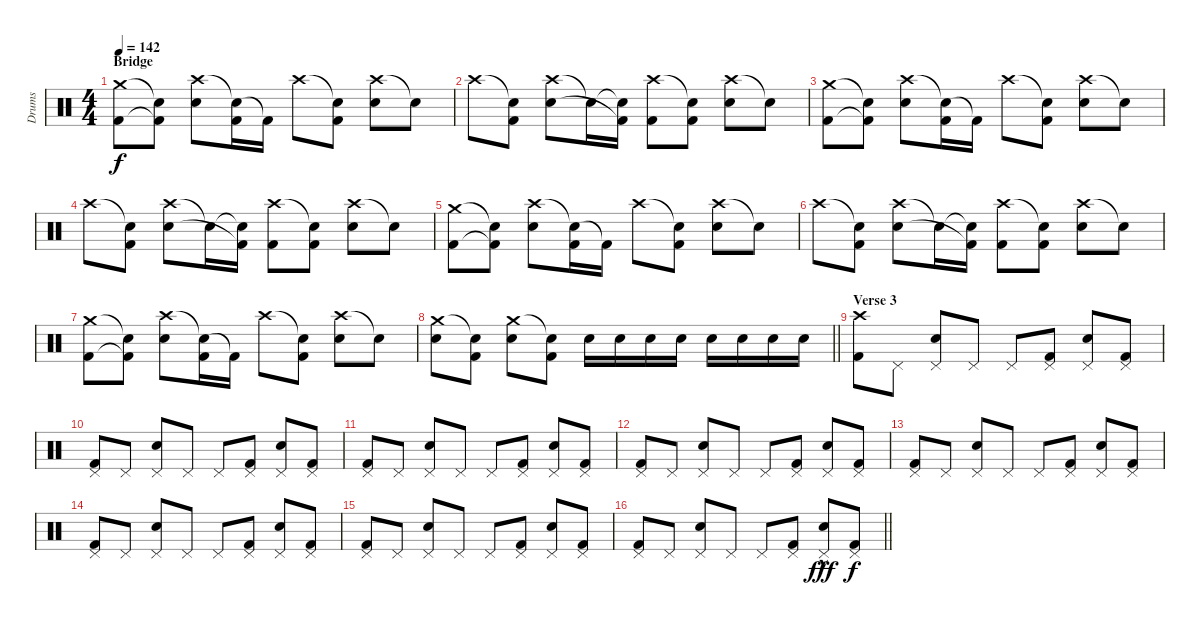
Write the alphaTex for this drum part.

\track ("Drums" "Drums") {instrument percussion}
\staff {score}
\articulation defaults
\ts (4 4)
\section ("" "Bridge")
\tempo 142
\clef neutral
\ks c
("Crash medium (hit)" "Kick (hit) 2").8{dy f} ("Snare (hit)"{t} "Kick (hit) 2"{t}).8 ("Crash high (hit)" "Electric Snare (hit)").8 ("Snare (hit)"{t} "Kick (hit) 2").16 "Kick (hit) 2"{t}.16 "Crash high (hit)".8 ("Snare (hit)"{t} "Kick (hit) 2").8 ("Crash high (hit)" "Electric Snare (hit)").8 "Snare (hit)"{t}.8 |
"Crash high (hit)".8 ("Snare (hit)"{t} "Kick (hit) 2").8 ("Crash high (hit)" "Electric Snare (hit)").8 "Snare (hit)"{t}.16 ("Snare (hit)"{t} "Kick (hit) 2"{t}).16 ("Crash high (hit)" "Kick (hit) 2").8 ("Snare (hit)"{t} "Kick (hit) 2").8 ("Crash high (hit)" "Electric Snare (hit)").8 "Snare (hit)"{t}.8 |
("Crash medium (hit)" "Kick (hit) 2").8 ("Snare (hit)"{t} "Kick (hit) 2"{t}).8 ("Crash high (hit)" "Electric Snare (hit)").8 ("Snare (hit)"{t} "Kick (hit) 2").16 "Kick (hit) 2"{t}.16 "Crash high (hit)".8 ("Snare (hit)"{t} "Kick (hit) 2").8 ("Crash high (hit)" "Electric Snare (hit)").8 "Snare (hit)"{t}.8 |
"Crash high (hit)".8 ("Snare (hit)"{t} "Kick (hit) 2").8 ("Crash high (hit)" "Electric Snare (hit)").8 "Snare (hit)"{t}.16 ("Snare (hit)"{t} "Kick (hit) 2"{t}).16 ("Crash high (hit)" "Kick (hit) 2").8 ("Snare (hit)"{t} "Kick (hit) 2").8 ("Crash high (hit)" "Electric Snare (hit)").8 "Snare (hit)"{t}.8 |
("Crash medium (hit)" "Kick (hit) 2").8 ("Snare (hit)"{t} "Kick (hit) 2"{t}).8 ("Crash high (hit)" "Electric Snare (hit)").8 ("Snare (hit)"{t} "Kick (hit) 2").16 "Kick (hit) 2"{t}.16 "Crash high (hit)".8 ("Snare (hit)"{t} "Kick (hit) 2").8 ("Crash high (hit)" "Electric Snare (hit)").8 "Snare (hit)"{t}.8 |
"Crash high (hit)".8 ("Snare (hit)"{t} "Kick (hit) 2").8 ("Crash high (hit)" "Electric Snare (hit)").8 "Snare (hit)"{t}.16 ("Snare (hit)"{t} "Kick (hit) 2"{t}).16 ("Crash high (hit)" "Kick (hit) 2").8 ("Snare (hit)"{t} "Kick (hit) 2").8 ("Crash high (hit)" "Electric Snare (hit)").8 "Snare (hit)"{t}.8 |
("Crash medium (hit)" "Kick (hit) 2").8 ("Snare (hit)"{t} "Kick (hit) 2"{t}).8 ("Crash high (hit)" "Electric Snare (hit)").8 ("Snare (hit)"{t} "Kick (hit) 2").16 "Kick (hit) 2"{t}.16 "Crash high (hit)".8 ("Snare (hit)"{t} "Kick (hit) 2").8 ("Crash high (hit)" "Electric Snare (hit)").8 "Snare (hit)"{t}.8 |
\barLineRight lightlight
("Crash medium (hit)" "Electric Snare (hit)").8 ("Snare (hit)"{t} "Kick (hit) 2").8 ("Crash medium (hit)" "Electric Snare (hit)").8 ("Snare (hit)"{t} "Kick (hit) 2").8 "Electric Snare (hit)".16 "Electric Snare (hit)".16 "Electric Snare (hit)".16 "Electric Snare (hit)".16 "Electric Snare (hit)".16 "Electric Snare (hit)".16 "Electric Snare (hit)".16 "Electric Snare (hit)".16 |
\section ("" "Verse 3")
("Crash high (hit)" "Kick (hit) 2").8 "Pedal Hi-Hat (hit)".8 ("Pedal Hi-Hat (hit)" "Snare (hit) 2").8 "Pedal Hi-Hat (hit)".8 "Pedal Hi-Hat (hit)".8 ("Pedal Hi-Hat (hit)" "Kick (hit) 2").8 ("Pedal Hi-Hat (hit)" "Snare (hit) 2").8 ("Pedal Hi-Hat (hit)" "Kick (hit) 2").8 |
("Pedal Hi-Hat (hit)" "Kick (hit) 2").8 "Pedal Hi-Hat (hit)".8 ("Pedal Hi-Hat (hit)" "Snare (hit) 2").8 "Pedal Hi-Hat (hit)".8 "Pedal Hi-Hat (hit)".8 ("Pedal Hi-Hat (hit)" "Kick (hit) 2").8 ("Pedal Hi-Hat (hit)" "Snare (hit) 2").8 ("Pedal Hi-Hat (hit)" "Kick (hit) 2").8 |
("Pedal Hi-Hat (hit)" "Kick (hit) 2").8 "Pedal Hi-Hat (hit)".8 ("Pedal Hi-Hat (hit)" "Snare (hit) 2").8 "Pedal Hi-Hat (hit)".8 "Pedal Hi-Hat (hit)".8 ("Pedal Hi-Hat (hit)" "Kick (hit) 2").8 ("Pedal Hi-Hat (hit)" "Snare (hit) 2").8 ("Pedal Hi-Hat (hit)" "Kick (hit) 2").8 |
("Pedal Hi-Hat (hit)" "Kick (hit) 2").8 "Pedal Hi-Hat (hit)".8 ("Pedal Hi-Hat (hit)" "Snare (hit) 2").8 "Pedal Hi-Hat (hit)".8 "Pedal Hi-Hat (hit)".8 ("Pedal Hi-Hat (hit)" "Kick (hit) 2").8 ("Pedal Hi-Hat (hit)" "Snare (hit) 2").8 ("Pedal Hi-Hat (hit)" "Kick (hit) 2").8 |
("Pedal Hi-Hat (hit)" "Kick (hit) 2").8 "Pedal Hi-Hat (hit)".8 ("Pedal Hi-Hat (hit)" "Snare (hit) 2").8 "Pedal Hi-Hat (hit)".8 "Pedal Hi-Hat (hit)".8 ("Pedal Hi-Hat (hit)" "Kick (hit) 2").8 ("Pedal Hi-Hat (hit)" "Snare (hit) 2").8 ("Pedal Hi-Hat (hit)" "Kick (hit) 2").8 |
("Pedal Hi-Hat (hit)" "Kick (hit) 2").8 "Pedal Hi-Hat (hit)".8 ("Pedal Hi-Hat (hit)" "Snare (hit) 2").8 "Pedal Hi-Hat (hit)".8 "Pedal Hi-Hat (hit)".8 ("Pedal Hi-Hat (hit)" "Kick (hit) 2").8 ("Pedal Hi-Hat (hit)" "Snare (hit) 2").8 ("Pedal Hi-Hat (hit)" "Kick (hit) 2").8 |
("Pedal Hi-Hat (hit)" "Kick (hit) 2").8 "Pedal Hi-Hat (hit)".8 ("Pedal Hi-Hat (hit)" "Snare (hit) 2").8 "Pedal Hi-Hat (hit)".8 "Pedal Hi-Hat (hit)".8 ("Pedal Hi-Hat (hit)" "Kick (hit) 2").8 ("Pedal Hi-Hat (hit)" "Snare (hit) 2").8 ("Pedal Hi-Hat (hit)" "Kick (hit) 2").8 |
\barLineRight lightlight
("Pedal Hi-Hat (hit)" "Kick (hit) 2").8 "Pedal Hi-Hat (hit)".8 ("Pedal Hi-Hat (hit)" "Snare (hit) 2").8 "Pedal Hi-Hat (hit)".8 "Pedal Hi-Hat (hit)".8 ("Pedal Hi-Hat (hit)" "Kick (hit) 2").8 ("Pedal Hi-Hat (hit)" "Electric Snare (hit)"{hac}).8{dy fff} ("Pedal Hi-Hat (hit)" "Kick (hit) 2").8{dy f}
